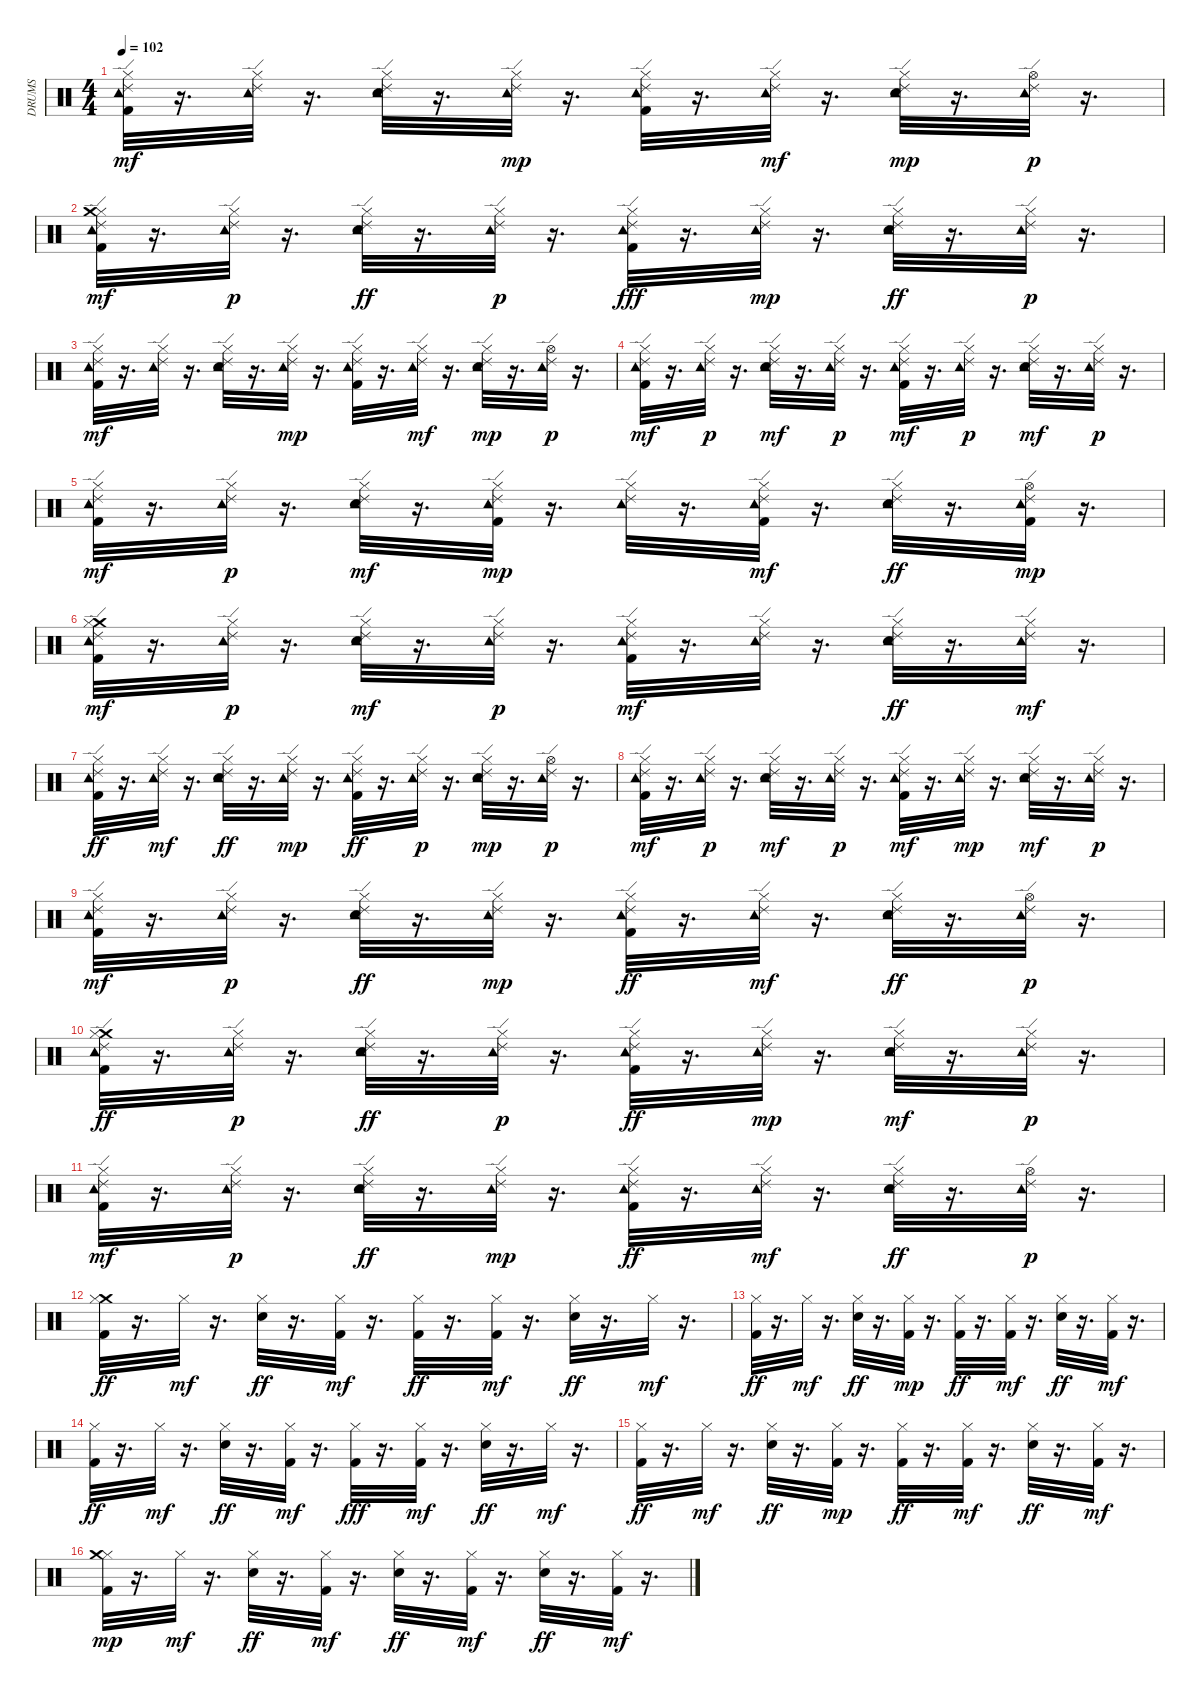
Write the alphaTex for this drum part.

\track ("DRUMS" "DRUMS") {instrument percussion}
\staff {score}
\articulation defaults
\ts (4 4)
\tempo 102
\clef neutral
\ks c
("Kick (hit) 2" "Ride (edge) 2" "Tambourine (hit)" "Hi-Hat (closed)").32{dy mf} r.16{d} ("Tambourine (hit)" "Ride (edge) 2" "Hi-Hat (closed)").32 r.16{d} ("Ride (edge) 2" "Hi-Hat (closed)" "Electric Snare (hit)" "Tambourine (hit)").32 r.16{d} ("Ride (edge) 2" "Tambourine (hit)" "Hi-Hat (closed)").32{dy mp} r.16{d} ("Ride (edge) 2" "Hi-Hat (closed)" "Kick (hit) 2" "Tambourine (hit)").32 r.16{d} ("Tambourine (hit)" "Ride (edge) 2" "Hi-Hat (closed)").32{dy mf} r.16{d} ("Hi-Hat (closed)" "Ride (edge) 2" "Electric Snare (hit)" "Tambourine (hit)").32{dy mp} r.16{d} ("Ride (edge) 2" "Hi-Hat (open)" "Tambourine (hit)").32{dy p} r.16{d} |
("Hi-Hat (closed)" "Ride (edge) 2" "Crash medium (hit)" "Kick (hit) 2" "Tambourine (hit)").32{dy mf} r.16{d} ("Hi-Hat (closed)" "Tambourine (hit)" "Ride (edge) 2").32{dy p} r.16{d} ("Tambourine (hit)" "Hi-Hat (closed)" "Electric Snare (hit)" "Ride (edge) 2").32{dy ff} r.16{d} ("Hi-Hat (closed)" "Tambourine (hit)" "Ride (edge) 2").32{dy p} r.16{d} ("Tambourine (hit)" "Hi-Hat (closed)" "Kick (hit) 2" "Ride (edge) 2").32{dy fff} r.16{d} ("Hi-Hat (closed)" "Tambourine (hit)" "Ride (edge) 2").32{dy mp} r.16{d} ("Electric Snare (hit)" "Ride (edge) 2" "Tambourine (hit)" "Hi-Hat (closed)").32{dy ff} r.16{d} ("Ride (edge) 2" "Hi-Hat (closed)" "Tambourine (hit)").32{dy p} r.16{d} |
("Kick (hit) 2" "Ride (edge) 2" "Tambourine (hit)" "Hi-Hat (closed)").32{dy mf} r.16{d} ("Tambourine (hit)" "Ride (edge) 2" "Hi-Hat (closed)").32 r.16{d} ("Ride (edge) 2" "Hi-Hat (closed)" "Electric Snare (hit)" "Tambourine (hit)").32 r.16{d} ("Ride (edge) 2" "Tambourine (hit)" "Hi-Hat (closed)").32{dy mp} r.16{d} ("Ride (edge) 2" "Hi-Hat (closed)" "Kick (hit) 2" "Tambourine (hit)").32 r.16{d} ("Tambourine (hit)" "Ride (edge) 2" "Hi-Hat (closed)").32{dy mf} r.16{d} ("Hi-Hat (closed)" "Ride (edge) 2" "Electric Snare (hit)" "Tambourine (hit)").32{dy mp} r.16{d} ("Ride (edge) 2" "Hi-Hat (open)" "Tambourine (hit)").32{dy p} r.16{d} |
("Hi-Hat (closed)" "Ride (edge) 2" "Kick (hit) 2" "Tambourine (hit)").32{dy mf} r.16{d} ("Ride (edge) 2" "Hi-Hat (closed)" "Tambourine (hit)").32{dy p} r.16{d} ("Hi-Hat (closed)" "Ride (edge) 2" "Electric Snare (hit)" "Tambourine (hit)").32{dy mf} r.16{d} ("Ride (edge) 2" "Hi-Hat (closed)" "Tambourine (hit)").32{dy p} r.16{d} ("Hi-Hat (closed)" "Ride (edge) 2" "Kick (hit) 2" "Tambourine (hit)").32{dy mf} r.16{d} ("Ride (edge) 2" "Hi-Hat (closed)" "Tambourine (hit)").32{dy p} r.16{d} ("Hi-Hat (closed)" "Ride (edge) 2" "Electric Snare (hit)" "Tambourine (hit)").32{dy mf} r.16{d} ("Ride (edge) 2" "Hi-Hat (closed)" "Tambourine (hit)").32{dy p} r.16{d} |
("Hi-Hat (closed)" "Ride (edge) 2" "Kick (hit) 2" "Tambourine (hit)").32{dy mf} r.16{d} ("Hi-Hat (closed)" "Ride (edge) 2" "Tambourine (hit)").32{dy p} r.16{d} ("Electric Snare (hit)" "Hi-Hat (closed)" "Tambourine (hit)" "Ride (edge) 2").32{dy mf} r.16{d} ("Ride (edge) 2" "Tambourine (hit)" "Hi-Hat (closed)" "Kick (hit) 2").32{dy mp} r.16{d} ("Ride (edge) 2" "Tambourine (hit)" "Hi-Hat (closed)").32 r.16{d} ("Tambourine (hit)" "Ride (edge) 2" "Hi-Hat (closed)" "Kick (hit) 2").32{dy mf} r.16{d} ("Tambourine (hit)" "Electric Snare (hit)" "Ride (edge) 2" "Hi-Hat (closed)").32{dy ff} r.16{d} ("Tambourine (hit)" "Ride (edge) 2" "Kick (hit) 2" "Hi-Hat (open)").32{dy mp} r.16{d} |
("Crash medium (hit)" "Hi-Hat (closed)" "Ride (edge) 2" "Kick (hit) 2" "Tambourine (hit)").32{dy mf} r.16{d} ("Hi-Hat (closed)" "Ride (edge) 2" "Tambourine (hit)").32{dy p} r.16{d} ("Hi-Hat (closed)" "Ride (edge) 2" "Electric Snare (hit)" "Tambourine (hit)").32{dy mf} r.16{d} ("Hi-Hat (closed)" "Ride (edge) 2" "Tambourine (hit)").32{dy p} r.16{d} ("Hi-Hat (closed)" "Ride (edge) 2" "Kick (hit) 2" "Tambourine (hit)").32{dy mf} r.16{d} ("Tambourine (hit)" "Hi-Hat (closed)" "Ride (edge) 2").32 r.16{d} ("Tambourine (hit)" "Electric Snare (hit)" "Ride (edge) 2" "Hi-Hat (closed)").32{dy ff} r.16{d} ("Tambourine (hit)" "Hi-Hat (closed)" "Ride (edge) 2").32{dy mf} r.16{d} |
("Tambourine (hit)" "Kick (hit) 2" "Ride (edge) 2" "Hi-Hat (closed)").32{dy ff} r.16{d} ("Ride (edge) 2" "Tambourine (hit)" "Hi-Hat (closed)").32{dy mf} r.16{d} ("Ride (edge) 2" "Tambourine (hit)" "Hi-Hat (closed)" "Electric Snare (hit)").32{dy ff} r.16{d} ("Ride (edge) 2" "Tambourine (hit)" "Hi-Hat (closed)").32{dy mp} r.16{d} ("Ride (edge) 2" "Tambourine (hit)" "Hi-Hat (closed)" "Kick (hit) 2").32{dy ff} r.16{d} ("Hi-Hat (closed)" "Ride (edge) 2" "Tambourine (hit)").32{dy p} r.16{d} ("Hi-Hat (closed)" "Ride (edge) 2" "Electric Snare (hit)" "Tambourine (hit)").32{dy mp} r.16{d} ("Hi-Hat (open)" "Tambourine (hit)" "Ride (edge) 2").32{dy p} r.16{d} |
("Hi-Hat (closed)" "Ride (edge) 2" "Kick (hit) 2" "Tambourine (hit)").32{dy mf} r.16{d} ("Hi-Hat (closed)" "Tambourine (hit)" "Ride (edge) 2").32{dy p} r.16{d} ("Hi-Hat (closed)" "Ride (edge) 2" "Electric Snare (hit)" "Tambourine (hit)").32{dy mf} r.16{d} ("Hi-Hat (closed)" "Tambourine (hit)" "Ride (edge) 2").32{dy p} r.16{d} ("Hi-Hat (closed)" "Ride (edge) 2" "Kick (hit) 2" "Tambourine (hit)").32{dy mf} r.16{d} ("Hi-Hat (closed)" "Tambourine (hit)" "Ride (edge) 2").32{dy mp} r.16{d} ("Hi-Hat (closed)" "Ride (edge) 2" "Electric Snare (hit)" "Tambourine (hit)").32{dy mf} r.16{d} ("Hi-Hat (closed)" "Tambourine (hit)" "Ride (edge) 2").32{dy p} r.16{d} |
("Hi-Hat (closed)" "Ride (edge) 2" "Kick (hit) 2" "Tambourine (hit)").32{dy mf} r.16{d} ("Hi-Hat (closed)" "Tambourine (hit)" "Ride (edge) 2").32{dy p} r.16{d} ("Ride (edge) 2" "Tambourine (hit)" "Hi-Hat (closed)" "Electric Snare (hit)").32{dy ff} r.16{d} ("Ride (edge) 2" "Tambourine (hit)" "Hi-Hat (closed)").32{dy mp} r.16{d} ("Ride (edge) 2" "Tambourine (hit)" "Hi-Hat (closed)" "Kick (hit) 2").32{dy ff} r.16{d} ("Tambourine (hit)" "Ride (edge) 2" "Hi-Hat (closed)").32{dy mf} r.16{d} ("Tambourine (hit)" "Electric Snare (hit)" "Ride (edge) 2" "Hi-Hat (closed)").32{dy ff} r.16{d} ("Hi-Hat (open)" "Tambourine (hit)" "Ride (edge) 2").32{dy p} r.16{d} |
("Tambourine (hit)" "Ride (edge) 2" "Kick (hit) 2" "Crash medium (hit)" "Hi-Hat (closed)").32{dy ff} r.16{d} ("Hi-Hat (closed)" "Tambourine (hit)" "Ride (edge) 2").32{dy p} r.16{d} ("Tambourine (hit)" "Electric Snare (hit)" "Ride (edge) 2" "Hi-Hat (closed)").32{dy ff} r.16{d} ("Hi-Hat (closed)" "Tambourine (hit)" "Ride (edge) 2").32{dy p} r.16{d} ("Tambourine (hit)" "Kick (hit) 2" "Ride (edge) 2" "Hi-Hat (closed)").32{dy ff} r.16{d} ("Hi-Hat (closed)" "Tambourine (hit)" "Ride (edge) 2").32{dy mp} r.16{d} ("Hi-Hat (closed)" "Ride (edge) 2" "Electric Snare (hit)" "Tambourine (hit)").32{dy mf} r.16{d} ("Hi-Hat (closed)" "Tambourine (hit)" "Ride (edge) 2").32{dy p} r.16{d} |
("Hi-Hat (closed)" "Ride (edge) 2" "Kick (hit) 2" "Tambourine (hit)").32{dy mf} r.16{d} ("Hi-Hat (closed)" "Tambourine (hit)" "Ride (edge) 2").32{dy p} r.16{d} ("Ride (edge) 2" "Tambourine (hit)" "Hi-Hat (closed)" "Electric Snare (hit)").32{dy ff} r.16{d} ("Ride (edge) 2" "Tambourine (hit)" "Hi-Hat (closed)").32{dy mp} r.16{d} ("Ride (edge) 2" "Tambourine (hit)" "Hi-Hat (closed)" "Kick (hit) 2").32{dy ff} r.16{d} ("Tambourine (hit)" "Ride (edge) 2" "Hi-Hat (closed)").32{dy mf} r.16{d} ("Tambourine (hit)" "Electric Snare (hit)" "Ride (edge) 2" "Hi-Hat (closed)").32{dy ff} r.16{d} ("Hi-Hat (open)" "Tambourine (hit)" "Ride (edge) 2").32{dy p} r.16{d} |
("Kick (hit) 2" "Crash medium (hit)" "Hi-Hat (closed)").32{dy ff} r.16{d} "Hi-Hat (closed)".32{dy mf} r.16{d} ("Electric Snare (hit)" "Hi-Hat (closed)").32{dy ff} r.16{d} ("Kick (hit) 2" "Hi-Hat (closed)").32{dy mf} r.16{d} ("Kick (hit) 2" "Hi-Hat (closed)").32{dy ff} r.16{d} ("Kick (hit) 2" "Hi-Hat (closed)").32{dy mf} r.16{d} ("Hi-Hat (closed)" "Electric Snare (hit)").32{dy ff} r.16{d} "Hi-Hat (closed)".32{dy mf} r.16{d} |
("Kick (hit) 2" "Hi-Hat (closed)").32{dy ff} r.16{d} "Hi-Hat (closed)".32{dy mf} r.16{d} ("Electric Snare (hit)" "Hi-Hat (closed)").32{dy ff} r.16{d} ("Kick (hit) 2" "Hi-Hat (closed)").32{dy mp} r.16{d} ("Kick (hit) 2" "Hi-Hat (closed)").32{dy ff} r.16{d} ("Kick (hit) 2" "Hi-Hat (closed)").32{dy mf} r.16{d} ("Hi-Hat (closed)" "Electric Snare (hit)").32{dy ff} r.16{d} ("Kick (hit) 2" "Hi-Hat (closed)").32{dy mf} r.16{d} |
("Kick (hit) 2" "Hi-Hat (closed)").32{dy ff} r.16{d} "Hi-Hat (closed)".32{dy mf} r.16{d} ("Electric Snare (hit)" "Hi-Hat (closed)").32{dy ff} r.16{d} ("Hi-Hat (closed)" "Kick (hit) 2").32{dy mf} r.16{d} ("Hi-Hat (closed)" "Kick (hit) 2").32{dy fff} r.16{d} ("Hi-Hat (closed)" "Kick (hit) 2").32{dy mf} r.16{d} ("Hi-Hat (closed)" "Electric Snare (hit)").32{dy ff} r.16{d} "Hi-Hat (closed)".32{dy mf} r.16{d} |
("Hi-Hat (closed)" "Kick (hit) 2").32{dy ff} r.16{d} "Hi-Hat (closed)".32{dy mf} r.16{d} ("Hi-Hat (closed)" "Electric Snare (hit)").32{dy ff} r.16{d} ("Kick (hit) 2" "Hi-Hat (closed)").32{dy mp} r.16{d} ("Kick (hit) 2" "Hi-Hat (closed)").32{dy ff} r.16{d} ("Kick (hit) 2" "Hi-Hat (closed)").32{dy mf} r.16{d} ("Hi-Hat (closed)" "Electric Snare (hit)").32{dy ff} r.16{d} ("Kick (hit) 2" "Hi-Hat (closed)").32{dy mf} r.16{d} |
("Hi-Hat (closed)" "Kick (hit) 2" "Crash medium (hit)").32{dy mp} r.16{d} "Hi-Hat (closed)".32{dy mf} r.16{d} ("Electric Snare (hit)" "Hi-Hat (closed)").32{dy ff} r.16{d} ("Kick (hit) 2" "Hi-Hat (closed)").32{dy mf} r.16{d} ("Electric Snare (hit)" "Hi-Hat (closed)").32{dy ff} r.16{d} ("Hi-Hat (closed)" "Kick (hit) 2").32{dy mf} r.16{d} ("Electric Snare (hit)" "Hi-Hat (closed)").32{dy ff} r.16{d} ("Kick (hit) 2" "Hi-Hat (closed)").32{dy mf} r.16{d}
